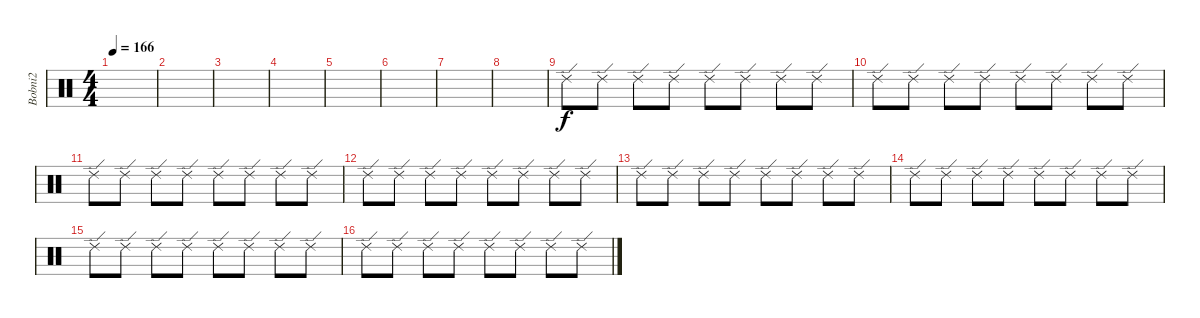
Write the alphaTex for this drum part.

\track ("Bobni2" "Bobni2") {instrument percussion}
\staff {score}
\articulation defaults
\ts (4 4)
\tempo 166
\clef neutral
\ks c
|
|
|
|
|
|
|
|
"Ride (edge) 2".8 "Ride (edge) 2".8 "Ride (edge) 2".8 "Ride (edge) 2".8 "Ride (edge) 2".8 "Ride (edge) 2".8 "Ride (edge) 2".8 "Ride (edge) 2".8 |
"Ride (edge) 2".8 "Ride (edge) 2".8 "Ride (edge) 2".8 "Ride (edge) 2".8 "Ride (edge) 2".8 "Ride (edge) 2".8 "Ride (edge) 2".8 "Ride (edge) 2".8 |
"Ride (edge) 2".8 "Ride (edge) 2".8 "Ride (edge) 2".8 "Ride (edge) 2".8 "Ride (edge) 2".8 "Ride (edge) 2".8 "Ride (edge) 2".8 "Ride (edge) 2".8 |
"Ride (edge) 2".8 "Ride (edge) 2".8 "Ride (edge) 2".8 "Ride (edge) 2".8 "Ride (edge) 2".8 "Ride (edge) 2".8 "Ride (edge) 2".8 "Ride (edge) 2".8 |
"Ride (edge) 2".8 "Ride (edge) 2".8 "Ride (edge) 2".8 "Ride (edge) 2".8 "Ride (edge) 2".8 "Ride (edge) 2".8 "Ride (edge) 2".8 "Ride (edge) 2".8 |
"Ride (edge) 2".8 "Ride (edge) 2".8 "Ride (edge) 2".8 "Ride (edge) 2".8 "Ride (edge) 2".8 "Ride (edge) 2".8 "Ride (edge) 2".8 "Ride (edge) 2".8 |
"Ride (edge) 2".8 "Ride (edge) 2".8 "Ride (edge) 2".8 "Ride (edge) 2".8 "Ride (edge) 2".8 "Ride (edge) 2".8 "Ride (edge) 2".8 "Ride (edge) 2".8 |
"Ride (edge) 2".8 "Ride (edge) 2".8 "Ride (edge) 2".8 "Ride (edge) 2".8 "Ride (edge) 2".8 "Ride (edge) 2".8 "Ride (edge) 2".8 "Ride (edge) 2".8
